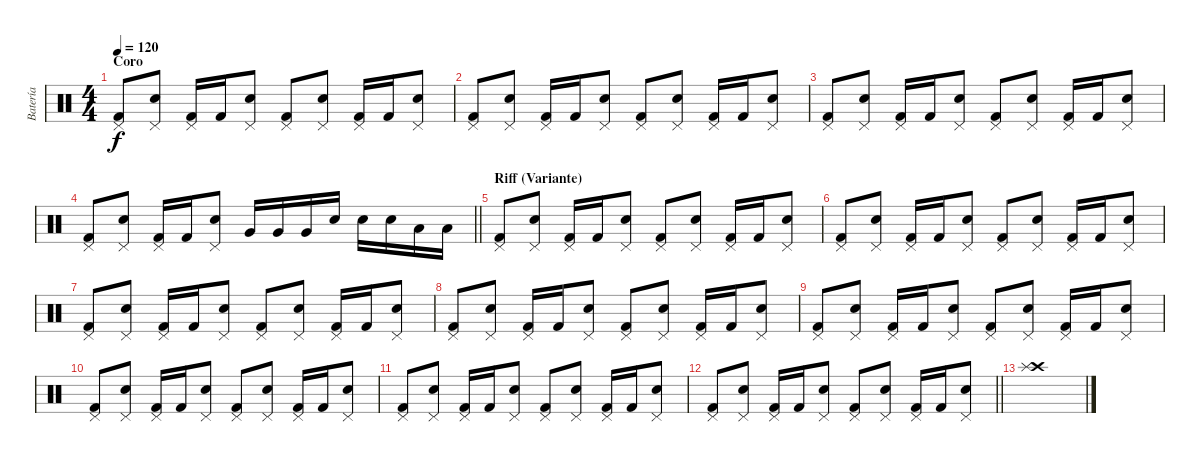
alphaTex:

\track ("Batería" "Batería") {instrument percussion}
\staff {score}
\articulation defaults
\ts (4 4)
\section ("" "Coro")
\tempo 120
\clef neutral
\ks c
("Pedal Hi-Hat (hit)" "Kick (hit) 2").8{dy f} ("Snare (hit) 2" "Pedal Hi-Hat (hit)").8 ("Kick (hit) 2" "Pedal Hi-Hat (hit)").16 "Kick (hit) 2".16 ("Pedal Hi-Hat (hit)" "Snare (hit) 2").8 ("Pedal Hi-Hat (hit)" "Kick (hit) 2").8 ("Snare (hit) 2" "Pedal Hi-Hat (hit)").8 ("Kick (hit) 2" "Pedal Hi-Hat (hit)").16 "Kick (hit) 2".16 ("Pedal Hi-Hat (hit)" "Snare (hit) 2").8 |
("Pedal Hi-Hat (hit)" "Kick (hit) 2").8 ("Snare (hit) 2" "Pedal Hi-Hat (hit)").8 ("Kick (hit) 2" "Pedal Hi-Hat (hit)").16 "Kick (hit) 2".16 ("Pedal Hi-Hat (hit)" "Snare (hit) 2").8 ("Pedal Hi-Hat (hit)" "Kick (hit) 2").8 ("Snare (hit) 2" "Pedal Hi-Hat (hit)").8 ("Kick (hit) 2" "Pedal Hi-Hat (hit)").16 "Kick (hit) 2".16 ("Pedal Hi-Hat (hit)" "Snare (hit) 2").8 |
("Pedal Hi-Hat (hit)" "Kick (hit) 2").8 ("Snare (hit) 2" "Pedal Hi-Hat (hit)").8 ("Kick (hit) 2" "Pedal Hi-Hat (hit)").16 "Kick (hit) 2".16 ("Pedal Hi-Hat (hit)" "Snare (hit) 2").8 ("Pedal Hi-Hat (hit)" "Kick (hit) 2").8 ("Snare (hit) 2" "Pedal Hi-Hat (hit)").8 ("Kick (hit) 2" "Pedal Hi-Hat (hit)").16 "Kick (hit) 2".16 ("Pedal Hi-Hat (hit)" "Snare (hit) 2").8 |
\barLineRight lightlight
("Pedal Hi-Hat (hit)" "Kick (hit) 2").8 ("Snare (hit) 2" "Pedal Hi-Hat (hit)").8 ("Kick (hit) 2" "Pedal Hi-Hat (hit)").16 "Kick (hit) 2".16 ("Pedal Hi-Hat (hit)" "Snare (hit) 2").8 "Very Low Tom (hit)".16 "Very Low Tom (hit)".16 "Very Low Tom (hit)".16 "Snare (hit) 2".16 "Snare (hit) 2".16 "Snare (hit) 2".16 "Low Tom (hit)".16 "Low Tom (hit)".16 |
\section ("" "Riff (Variante)")
("Pedal Hi-Hat (hit)" "Kick (hit) 2").8 ("Snare (hit) 2" "Pedal Hi-Hat (hit)").8 ("Kick (hit) 2" "Pedal Hi-Hat (hit)").16 "Kick (hit) 2".16 ("Pedal Hi-Hat (hit)" "Snare (hit) 2").8 ("Pedal Hi-Hat (hit)" "Kick (hit) 2").8 ("Snare (hit) 2" "Pedal Hi-Hat (hit)").8 ("Kick (hit) 2" "Pedal Hi-Hat (hit)").16 "Kick (hit) 2".16 ("Pedal Hi-Hat (hit)" "Snare (hit) 2").8 |
("Pedal Hi-Hat (hit)" "Kick (hit) 2").8 ("Snare (hit) 2" "Pedal Hi-Hat (hit)").8 ("Kick (hit) 2" "Pedal Hi-Hat (hit)").16 "Kick (hit) 2".16 ("Pedal Hi-Hat (hit)" "Snare (hit) 2").8 ("Pedal Hi-Hat (hit)" "Kick (hit) 2").8 ("Snare (hit) 2" "Pedal Hi-Hat (hit)").8 ("Kick (hit) 2" "Pedal Hi-Hat (hit)").16 "Kick (hit) 2".16 ("Pedal Hi-Hat (hit)" "Snare (hit) 2").8 |
("Pedal Hi-Hat (hit)" "Kick (hit) 2").8 ("Snare (hit) 2" "Pedal Hi-Hat (hit)").8 ("Kick (hit) 2" "Pedal Hi-Hat (hit)").16 "Kick (hit) 2".16 ("Pedal Hi-Hat (hit)" "Snare (hit) 2").8 ("Pedal Hi-Hat (hit)" "Kick (hit) 2").8 ("Snare (hit) 2" "Pedal Hi-Hat (hit)").8 ("Kick (hit) 2" "Pedal Hi-Hat (hit)").16 "Kick (hit) 2".16 ("Pedal Hi-Hat (hit)" "Snare (hit) 2").8 |
("Pedal Hi-Hat (hit)" "Kick (hit) 2").8 ("Snare (hit) 2" "Pedal Hi-Hat (hit)").8 ("Kick (hit) 2" "Pedal Hi-Hat (hit)").16 "Kick (hit) 2".16 ("Pedal Hi-Hat (hit)" "Snare (hit) 2").8 ("Pedal Hi-Hat (hit)" "Kick (hit) 2").8 ("Snare (hit) 2" "Pedal Hi-Hat (hit)").8 ("Kick (hit) 2" "Pedal Hi-Hat (hit)").16 "Kick (hit) 2".16 ("Pedal Hi-Hat (hit)" "Snare (hit) 2").8 |
("Pedal Hi-Hat (hit)" "Kick (hit) 2").8 ("Snare (hit) 2" "Pedal Hi-Hat (hit)").8 ("Kick (hit) 2" "Pedal Hi-Hat (hit)").16 "Kick (hit) 2".16 ("Pedal Hi-Hat (hit)" "Snare (hit) 2").8 ("Pedal Hi-Hat (hit)" "Kick (hit) 2").8 ("Snare (hit) 2" "Pedal Hi-Hat (hit)").8 ("Kick (hit) 2" "Pedal Hi-Hat (hit)").16 "Kick (hit) 2".16 ("Pedal Hi-Hat (hit)" "Snare (hit) 2").8 |
("Pedal Hi-Hat (hit)" "Kick (hit) 2").8 ("Snare (hit) 2" "Pedal Hi-Hat (hit)").8 ("Kick (hit) 2" "Pedal Hi-Hat (hit)").16 "Kick (hit) 2".16 ("Pedal Hi-Hat (hit)" "Snare (hit) 2").8 ("Pedal Hi-Hat (hit)" "Kick (hit) 2").8 ("Snare (hit) 2" "Pedal Hi-Hat (hit)").8 ("Kick (hit) 2" "Pedal Hi-Hat (hit)").16 "Kick (hit) 2".16 ("Pedal Hi-Hat (hit)" "Snare (hit) 2").8 |
("Pedal Hi-Hat (hit)" "Kick (hit) 2").8 ("Snare (hit) 2" "Pedal Hi-Hat (hit)").8 ("Kick (hit) 2" "Pedal Hi-Hat (hit)").16 "Kick (hit) 2".16 ("Pedal Hi-Hat (hit)" "Snare (hit) 2").8 ("Pedal Hi-Hat (hit)" "Kick (hit) 2").8 ("Snare (hit) 2" "Pedal Hi-Hat (hit)").8 ("Kick (hit) 2" "Pedal Hi-Hat (hit)").16 "Kick (hit) 2".16 ("Pedal Hi-Hat (hit)" "Snare (hit) 2").8 |
\barLineRight lightlight
("Pedal Hi-Hat (hit)" "Kick (hit) 2").8 ("Snare (hit) 2" "Pedal Hi-Hat (hit)").8 ("Kick (hit) 2" "Pedal Hi-Hat (hit)").16 "Kick (hit) 2".16 ("Pedal Hi-Hat (hit)" "Snare (hit) 2").8 ("Pedal Hi-Hat (hit)" "Kick (hit) 2").8 ("Snare (hit) 2" "Pedal Hi-Hat (hit)").8 ("Kick (hit) 2" "Pedal Hi-Hat (hit)").16 "Kick (hit) 2".16 ("Pedal Hi-Hat (hit)" "Snare (hit) 2").8 |
("Crash high (hit)" "Splash (hit)").1
